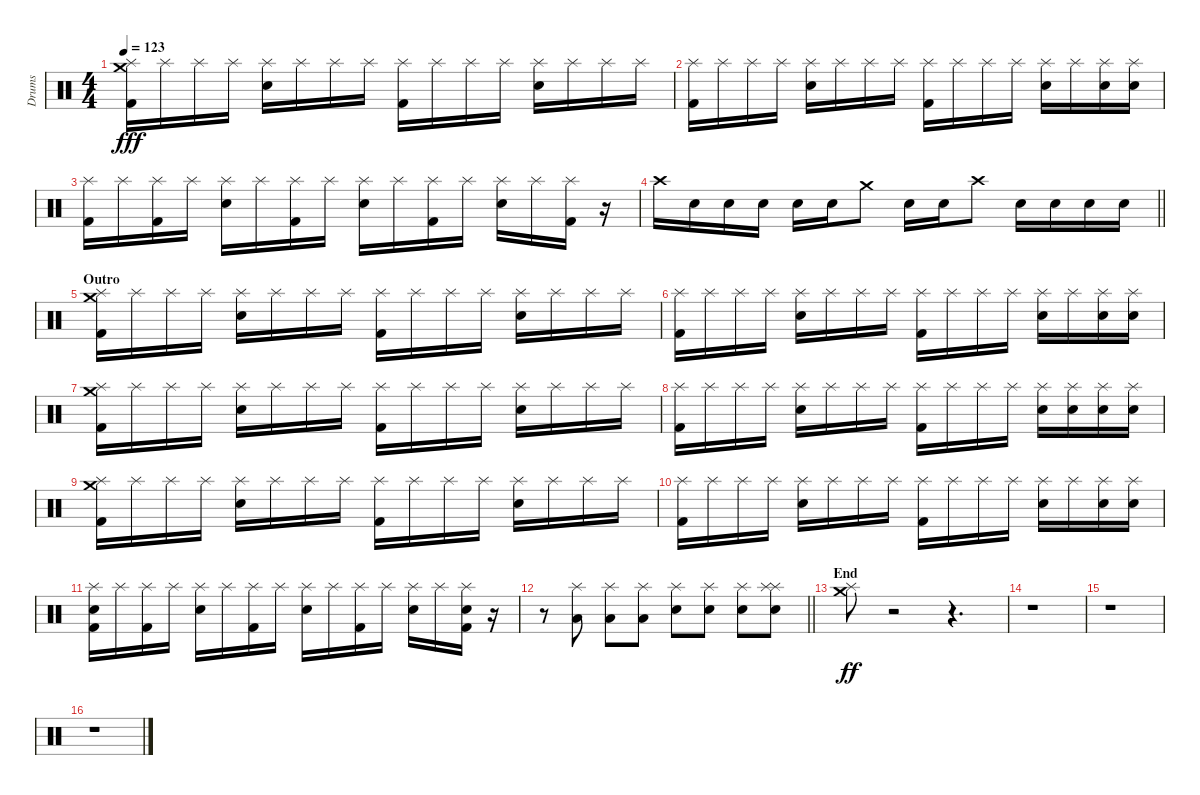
\track ("Drums" "Drums") {instrument percussion}
\staff {score}
\articulation defaults
\ts (4 4)
\tempo 123
\clef neutral
\ks c
("Crash medium (hit)" "Splash (hit)" "Kick (hit) 2").16{dy fff} "Splash (hit)".16 "Splash (hit)".16 "Splash (hit)".16 ("Splash (hit)" "Electric Snare (hit)").16 "Splash (hit)".16 "Splash (hit)".16 "Splash (hit)".16 ("Splash (hit)" "Kick (hit) 2").16 "Splash (hit)".16 "Splash (hit)".16 "Splash (hit)".16 ("Splash (hit)" "Electric Snare (hit)").16 "Splash (hit)".16 "Splash (hit)".16 "Splash (hit)".16 |
("Splash (hit)" "Kick (hit) 2").16 "Splash (hit)".16 "Splash (hit)".16 "Splash (hit)".16 ("Splash (hit)" "Electric Snare (hit)").16 "Splash (hit)".16 "Splash (hit)".16 "Splash (hit)".16 ("Splash (hit)" "Kick (hit) 2").16 "Splash (hit)".16 "Splash (hit)".16 "Splash (hit)".16 ("Splash (hit)" "Electric Snare (hit)").16 "Splash (hit)".16 ("Splash (hit)" "Electric Snare (hit)").16 ("Splash (hit)" "Electric Snare (hit)").16 |
("Splash (hit)" "Kick (hit) 2").16 "Splash (hit)".16 ("Splash (hit)" "Kick (hit) 2").16 "Splash (hit)".16 ("Splash (hit)" "Electric Snare (hit)").16 "Splash (hit)".16 ("Splash (hit)" "Kick (hit) 2").16 "Splash (hit)".16 ("Splash (hit)" "Electric Snare (hit)").16 "Splash (hit)".16 ("Splash (hit)" "Kick (hit) 2").16 "Splash (hit)".16 ("Splash (hit)" "Electric Snare (hit)").16 "Splash (hit)".16 ("Splash (hit)" "Kick (hit) 2").16 r.16 |
\barLineRight lightlight "Crash high (hit)".16 "Electric Snare (hit)".16 "Electric Snare (hit)".16 "Electric Snare (hit)".16 "Electric Snare (hit)".16 "Electric Snare (hit)".16 "Crash medium (hit)".8 "Electric Snare (hit)".16 "Electric Snare (hit)".16 "Crash high (hit)".8 "Electric Snare (hit)".16 "Electric Snare (hit)".16 "Electric Snare (hit)".16 "Electric Snare (hit)".16
|
\section ("" "Outro")
("Crash medium (hit)" "Splash (hit)" "Kick (hit) 2").16 "Splash (hit)".16 "Splash (hit)".16 "Splash (hit)".16 ("Splash (hit)" "Electric Snare (hit)").16 "Splash (hit)".16 "Splash (hit)".16 "Splash (hit)".16 ("Splash (hit)" "Kick (hit) 2").16 "Splash (hit)".16 "Splash (hit)".16 "Splash (hit)".16 ("Splash (hit)" "Electric Snare (hit)").16 "Splash (hit)".16 "Splash (hit)".16 "Splash (hit)".16 |
("Splash (hit)" "Kick (hit) 2").16 "Splash (hit)".16 "Splash (hit)".16 "Splash (hit)".16 ("Splash (hit)" "Electric Snare (hit)").16 "Splash (hit)".16 "Splash (hit)".16 "Splash (hit)".16 ("Splash (hit)" "Kick (hit) 2").16 "Splash (hit)".16 "Splash (hit)".16 "Splash (hit)".16 ("Splash (hit)" "Electric Snare (hit)").16 "Splash (hit)".16 ("Splash (hit)" "Electric Snare (hit)").16 ("Splash (hit)" "Electric Snare (hit)").16 |
("Crash medium (hit)" "Splash (hit)" "Kick (hit) 2").16 "Splash (hit)".16 "Splash (hit)".16 "Splash (hit)".16 ("Splash (hit)" "Electric Snare (hit)").16 "Splash (hit)".16 "Splash (hit)".16 "Splash (hit)".16 ("Splash (hit)" "Kick (hit) 2").16 "Splash (hit)".16 "Splash (hit)".16 "Splash (hit)".16 ("Splash (hit)" "Electric Snare (hit)").16 "Splash (hit)".16 "Splash (hit)".16 "Splash (hit)".16 |
("Splash (hit)" "Kick (hit) 2").16 "Splash (hit)".16 "Splash (hit)".16 "Splash (hit)".16 ("Splash (hit)" "Electric Snare (hit)").16 "Splash (hit)".16 "Splash (hit)".16 "Splash (hit)".16 ("Splash (hit)" "Kick (hit) 2").16 "Splash (hit)".16 "Splash (hit)".16 "Splash (hit)".16 ("Splash (hit)" "Electric Snare (hit)").16 ("Splash (hit)" "Electric Snare (hit)").16 ("Splash (hit)" "Electric Snare (hit)").16 ("Splash (hit)" "Electric Snare (hit)").16 |
("Crash medium (hit)" "Splash (hit)" "Kick (hit) 2").16 "Splash (hit)".16 "Splash (hit)".16 "Splash (hit)".16 ("Splash (hit)" "Electric Snare (hit)").16 "Splash (hit)".16 "Splash (hit)".16 "Splash (hit)".16 ("Splash (hit)" "Kick (hit) 2").16 "Splash (hit)".16 "Splash (hit)".16 "Splash (hit)".16 ("Splash (hit)" "Electric Snare (hit)").16 "Splash (hit)".16 "Splash (hit)".16 "Splash (hit)".16 |
("Splash (hit)" "Kick (hit) 2").16 "Splash (hit)".16 "Splash (hit)".16 "Splash (hit)".16 ("Splash (hit)" "Electric Snare (hit)").16 "Splash (hit)".16 "Splash (hit)".16 "Splash (hit)".16 ("Splash (hit)" "Kick (hit) 2").16 "Splash (hit)".16 "Splash (hit)".16 "Splash (hit)".16 ("Splash (hit)" "Electric Snare (hit)").16 "Splash (hit)".16 ("Splash (hit)" "Electric Snare (hit)").16 ("Splash (hit)" "Electric Snare (hit)").16 |
("Splash (hit)" "Electric Snare (hit)" "Kick (hit) 2").16 "Splash (hit)".16 ("Splash (hit)" "Kick (hit) 2").16 "Splash (hit)".16 ("Splash (hit)" "Electric Snare (hit)").16 "Splash (hit)".16 ("Splash (hit)" "Kick (hit) 2").16 "Splash (hit)".16 ("Splash (hit)" "Electric Snare (hit)").16 "Splash (hit)".16 ("Splash (hit)" "Kick (hit) 2").16 "Splash (hit)".16 ("Splash (hit)" "Electric Snare (hit)").16 "Splash (hit)".16 ("Splash (hit)" "Electric Snare (hit)" "Kick (hit) 2").16 r.16 |
\barLineRight lightlight
r.8 ("Splash (hit)" "Low Floor Tom (hit)").8 ("Splash (hit)" "Low Floor Tom (hit)").8 ("Splash (hit)" "Low Floor Tom (hit)").8 ("Splash (hit)" "Electric Snare (hit)").8 ("Splash (hit)" "Electric Snare (hit)").8 ("Splash (hit)" "Electric Snare (hit)").8 ("Splash (hit)" "Splash (hit)" "Electric Snare (hit)").8 |
\section ("" "End")
("Crash medium (hit)" "Splash (hit)").8{dy ff} r.2 r.4{d} |
r.1 |
r.1 |
r.1
